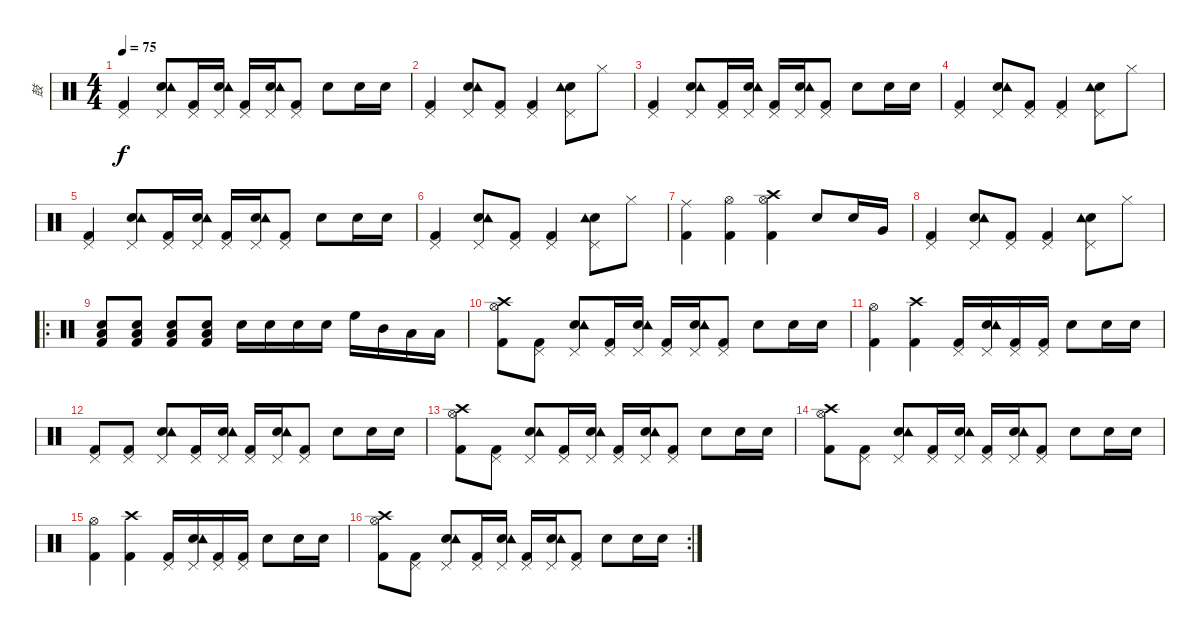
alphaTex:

\track ("鼓" "鼓") {instrument percussion}
\staff {score}
\articulation defaults
\ts (4 4)
\tempo 75
\clef neutral
\ks c
("Kick (hit) 2" "Pedal Hi-Hat (hit)").4{dy f} ("Snare (hit) 2" "Pedal Hi-Hat (hit)" "Tambourine (hit)").8 ("Kick (hit) 2" "Pedal Hi-Hat (hit)").16 ("Snare (hit) 2" "Pedal Hi-Hat (hit)" "Tambourine (hit)").16 ("Kick (hit) 2" "Pedal Hi-Hat (hit)").16 ("Snare (hit) 2" "Pedal Hi-Hat (hit)" "Tambourine (hit)").16 ("Kick (hit) 2" "Pedal Hi-Hat (hit)").8 "Snare (hit) 2".8 "Snare (hit) 2".16 "Snare (hit) 2".16 |
("Kick (hit) 2" "Pedal Hi-Hat (hit)").4 ("Snare (hit) 2" "Pedal Hi-Hat (hit)" "Tambourine (hit)").8 ("Kick (hit) 2" "Pedal Hi-Hat (hit)").8 ("Kick (hit) 2" "Pedal Hi-Hat (hit)").4 ("Snare (hit) 2" "Pedal Hi-Hat (hit)" "Tambourine (hit)").8 "Hi-Hat (closed)".8 |
("Kick (hit) 2" "Pedal Hi-Hat (hit)").4 ("Snare (hit) 2" "Pedal Hi-Hat (hit)" "Tambourine (hit)").8 ("Kick (hit) 2" "Pedal Hi-Hat (hit)").16 ("Snare (hit) 2" "Pedal Hi-Hat (hit)" "Tambourine (hit)").16 ("Kick (hit) 2" "Pedal Hi-Hat (hit)").16 ("Snare (hit) 2" "Pedal Hi-Hat (hit)" "Tambourine (hit)").16 ("Kick (hit) 2" "Pedal Hi-Hat (hit)").8 "Snare (hit) 2".8 "Snare (hit) 2".16 "Snare (hit) 2".16 |
("Kick (hit) 2" "Pedal Hi-Hat (hit)").4 ("Snare (hit) 2" "Pedal Hi-Hat (hit)" "Tambourine (hit)").8 ("Kick (hit) 2" "Pedal Hi-Hat (hit)").8 ("Kick (hit) 2" "Pedal Hi-Hat (hit)").4 ("Snare (hit) 2" "Pedal Hi-Hat (hit)" "Tambourine (hit)").8 "Hi-Hat (closed)".8 |
("Kick (hit) 2" "Pedal Hi-Hat (hit)").4 ("Snare (hit) 2" "Pedal Hi-Hat (hit)" "Tambourine (hit)").8 ("Kick (hit) 2" "Pedal Hi-Hat (hit)").16 ("Snare (hit) 2" "Pedal Hi-Hat (hit)" "Tambourine (hit)").16 ("Kick (hit) 2" "Pedal Hi-Hat (hit)").16 ("Snare (hit) 2" "Pedal Hi-Hat (hit)" "Tambourine (hit)").16 ("Kick (hit) 2" "Pedal Hi-Hat (hit)").8 "Snare (hit) 2".8 "Snare (hit) 2".16 "Snare (hit) 2".16 |
("Kick (hit) 2" "Pedal Hi-Hat (hit)").4 ("Snare (hit) 2" "Pedal Hi-Hat (hit)" "Tambourine (hit)").8 ("Kick (hit) 2" "Pedal Hi-Hat (hit)").8 ("Kick (hit) 2" "Pedal Hi-Hat (hit)").4 ("Snare (hit) 2" "Pedal Hi-Hat (hit)" "Tambourine (hit)").8 "Hi-Hat (closed)".8 |
("Kick (hit) 2" "Ride (middle)").4 ("Kick (hit) 2" "Hi-Hat (open)").4 ("Kick (hit) 2" "Crash high (hit)" "Hi-Hat (open)").4 "Snare (hit) 2".8 "Snare (hit) 2".16 "Very Low Tom (hit)".16 |
("Kick (hit) 2" "Pedal Hi-Hat (hit)").4 ("Snare (hit) 2" "Pedal Hi-Hat (hit)" "Tambourine (hit)").8 ("Kick (hit) 2" "Pedal Hi-Hat (hit)").8 ("Kick (hit) 2" "Pedal Hi-Hat (hit)").4 ("Snare (hit) 2" "Pedal Hi-Hat (hit)" "Tambourine (hit)").8 "Hi-Hat (closed)".8 |
\ro
("Low Floor Tom (hit)" "Snare (hit) 2" "Kick (hit) 2").8 ("Low Floor Tom (hit)" "Snare (hit) 2" "Kick (hit) 2").8 ("Low Floor Tom (hit)" "Snare (hit) 2" "Kick (hit) 2").8 ("Low Floor Tom (hit)" "Snare (hit) 2" "Kick (hit) 2").8 "Snare (hit) 2".16 "Snare (hit) 2".16 "Snare (hit) 2".16 "Snare (hit) 2".16 "High Floor Tom (hit)".16 "Mid Tom (hit)".16 "Low Tom (hit)".16 "Low Floor Tom (hit)".16 |
("Kick (hit) 2" "Hi-Hat (open)" "Crash high (hit)").8 ("Kick (hit) 2" "Pedal Hi-Hat (hit)").8 ("Snare (hit) 2" "Pedal Hi-Hat (hit)" "Tambourine (hit)").8 ("Kick (hit) 2" "Pedal Hi-Hat (hit)").16 ("Snare (hit) 2" "Pedal Hi-Hat (hit)" "Tambourine (hit)").16 ("Kick (hit) 2" "Pedal Hi-Hat (hit)").16 ("Snare (hit) 2" "Pedal Hi-Hat (hit)" "Tambourine (hit)").16 ("Kick (hit) 2" "Pedal Hi-Hat (hit)").8 "Snare (hit) 2".8 "Snare (hit) 2".16 "Snare (hit) 2".16 |
("Hi-Hat (open)" "Kick (hit) 2").4 ("Crash high (hit)" "Kick (hit) 2").4 ("Kick (hit) 2" "Pedal Hi-Hat (hit)").16 ("Snare (hit) 2" "Pedal Hi-Hat (hit)" "Tambourine (hit)").16 ("Kick (hit) 2" "Pedal Hi-Hat (hit)").16 ("Kick (hit) 2" "Pedal Hi-Hat (hit)").16 "Snare (hit) 2".8 "Snare (hit) 2".16 "Snare (hit) 2".16 |
("Kick (hit) 2" "Pedal Hi-Hat (hit)").8 ("Kick (hit) 2" "Pedal Hi-Hat (hit)").8 ("Snare (hit) 2" "Pedal Hi-Hat (hit)" "Tambourine (hit)").8 ("Kick (hit) 2" "Pedal Hi-Hat (hit)").16 ("Snare (hit) 2" "Pedal Hi-Hat (hit)" "Tambourine (hit)").16 ("Kick (hit) 2" "Pedal Hi-Hat (hit)").16 ("Snare (hit) 2" "Pedal Hi-Hat (hit)" "Tambourine (hit)").16 ("Kick (hit) 2" "Pedal Hi-Hat (hit)").8 "Snare (hit) 2".8 "Snare (hit) 2".16 "Snare (hit) 2".16 |
("Crash high (hit)" "Hi-Hat (open)" "Kick (hit) 2").8 ("Kick (hit) 2" "Pedal Hi-Hat (hit)").8 ("Snare (hit) 2" "Pedal Hi-Hat (hit)" "Tambourine (hit)").8 ("Kick (hit) 2" "Pedal Hi-Hat (hit)").16 ("Snare (hit) 2" "Pedal Hi-Hat (hit)" "Tambourine (hit)").16 ("Kick (hit) 2" "Pedal Hi-Hat (hit)").16 ("Snare (hit) 2" "Pedal Hi-Hat (hit)" "Tambourine (hit)").16 ("Kick (hit) 2" "Pedal Hi-Hat (hit)").8 "Snare (hit) 2".8 "Snare (hit) 2".16 "Snare (hit) 2".16 |
("Crash high (hit)" "Hi-Hat (open)" "Kick (hit) 2").8 ("Kick (hit) 2" "Pedal Hi-Hat (hit)").8 ("Snare (hit) 2" "Pedal Hi-Hat (hit)" "Tambourine (hit)").8 ("Kick (hit) 2" "Pedal Hi-Hat (hit)").16 ("Snare (hit) 2" "Pedal Hi-Hat (hit)" "Tambourine (hit)").16 ("Kick (hit) 2" "Pedal Hi-Hat (hit)").16 ("Snare (hit) 2" "Pedal Hi-Hat (hit)" "Tambourine (hit)").16 ("Kick (hit) 2" "Pedal Hi-Hat (hit)").8 "Snare (hit) 2".8 "Snare (hit) 2".16 "Snare (hit) 2".16 |
("Hi-Hat (open)" "Kick (hit) 2").4 ("Crash high (hit)" "Kick (hit) 2").4 ("Kick (hit) 2" "Pedal Hi-Hat (hit)").16 ("Snare (hit) 2" "Pedal Hi-Hat (hit)" "Tambourine (hit)").16 ("Kick (hit) 2" "Pedal Hi-Hat (hit)").16 ("Kick (hit) 2" "Pedal Hi-Hat (hit)").16 "Snare (hit) 2".8 "Snare (hit) 2".16 "Snare (hit) 2".16 |
\rc 2
("Crash high (hit)" "Hi-Hat (open)" "Kick (hit) 2").8 ("Kick (hit) 2" "Pedal Hi-Hat (hit)").8 ("Snare (hit) 2" "Pedal Hi-Hat (hit)" "Tambourine (hit)").8 ("Kick (hit) 2" "Pedal Hi-Hat (hit)").16 ("Snare (hit) 2" "Pedal Hi-Hat (hit)" "Tambourine (hit)").16 ("Kick (hit) 2" "Pedal Hi-Hat (hit)").16 ("Snare (hit) 2" "Pedal Hi-Hat (hit)" "Tambourine (hit)").16 ("Kick (hit) 2" "Pedal Hi-Hat (hit)").8 "Snare (hit) 2".8 "Snare (hit) 2".16 "Snare (hit) 2".16
